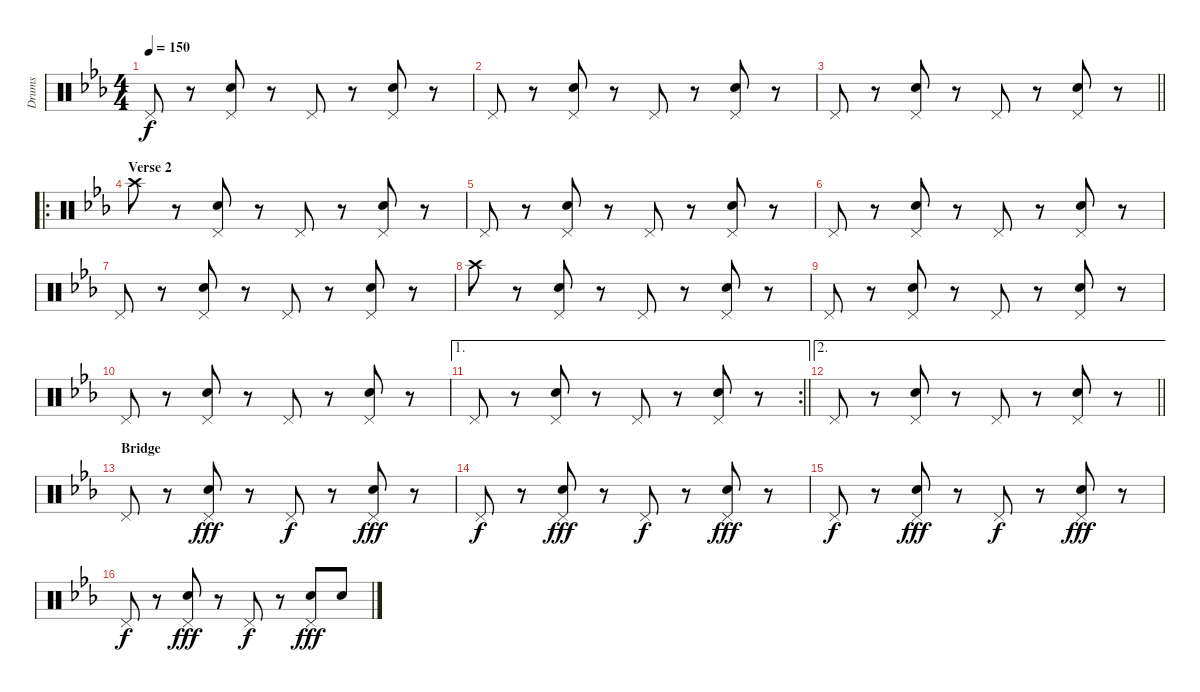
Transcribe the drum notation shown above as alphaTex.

\track ("Drums" "Drums") {instrument percussion}
\staff {score}
\articulation defaults
\ts (4 4)
\tempo 150
\clef neutral
\ks cminor "Pedal Hi-Hat (hit)".8{dy f}
r.8 ("Pedal Hi-Hat (hit)" "Electric Snare (hit)").8 r.8 "Pedal Hi-Hat (hit)".8 r.8 ("Pedal Hi-Hat (hit)" "Electric Snare (hit)").8 r.8 |
"Pedal Hi-Hat (hit)".8 r.8 ("Pedal Hi-Hat (hit)" "Electric Snare (hit)").8 r.8 "Pedal Hi-Hat (hit)".8 r.8 ("Pedal Hi-Hat (hit)" "Electric Snare (hit)").8 r.8 |
\barLineRight lightlight "Pedal Hi-Hat (hit)".8
r.8 ("Pedal Hi-Hat (hit)" "Electric Snare (hit)").8 r.8 "Pedal Hi-Hat (hit)".8 r.8 ("Pedal Hi-Hat (hit)" "Electric Snare (hit)").8 r.8 |
\ro
\section ("" "Verse 2")
"Crash high (hit)".8 r.8 ("Pedal Hi-Hat (hit)" "Electric Snare (hit)").8 r.8 "Pedal Hi-Hat (hit)".8 r.8 ("Pedal Hi-Hat (hit)" "Electric Snare (hit)").8 r.8 |
"Pedal Hi-Hat (hit)".8 r.8 ("Pedal Hi-Hat (hit)" "Electric Snare (hit)").8 r.8 "Pedal Hi-Hat (hit)".8 r.8 ("Pedal Hi-Hat (hit)" "Electric Snare (hit)").8 r.8 |
"Pedal Hi-Hat (hit)".8 r.8 ("Pedal Hi-Hat (hit)" "Electric Snare (hit)").8 r.8 "Pedal Hi-Hat (hit)".8 r.8 ("Pedal Hi-Hat (hit)" "Electric Snare (hit)").8 r.8 |
"Pedal Hi-Hat (hit)".8 r.8 ("Pedal Hi-Hat (hit)" "Electric Snare (hit)").8 r.8 "Pedal Hi-Hat (hit)".8 r.8 ("Pedal Hi-Hat (hit)" "Electric Snare (hit)").8 r.8 |
"Crash high (hit)".8 r.8 ("Pedal Hi-Hat (hit)" "Electric Snare (hit)").8 r.8 "Pedal Hi-Hat (hit)".8 r.8 ("Pedal Hi-Hat (hit)" "Electric Snare (hit)").8 r.8 |
"Pedal Hi-Hat (hit)".8 r.8 ("Pedal Hi-Hat (hit)" "Electric Snare (hit)").8 r.8 "Pedal Hi-Hat (hit)".8 r.8 ("Pedal Hi-Hat (hit)" "Electric Snare (hit)").8 r.8 |
"Pedal Hi-Hat (hit)".8 r.8 ("Pedal Hi-Hat (hit)" "Electric Snare (hit)").8 r.8 "Pedal Hi-Hat (hit)".8 r.8 ("Pedal Hi-Hat (hit)" "Electric Snare (hit)").8 r.8 |
\ae 1
\rc 2
\barLineRight lightlight "Pedal Hi-Hat (hit)".8
r.8 ("Pedal Hi-Hat (hit)" "Electric Snare (hit)").8 r.8 "Pedal Hi-Hat (hit)".8 r.8 ("Pedal Hi-Hat (hit)" "Electric Snare (hit)").8 r.8 |
\ae 2
\barLineRight lightlight "Pedal Hi-Hat (hit)".8
r.8 ("Pedal Hi-Hat (hit)" "Electric Snare (hit)").8 r.8 "Pedal Hi-Hat (hit)".8 r.8 ("Pedal Hi-Hat (hit)" "Electric Snare (hit)").8 r.8 |
\section ("" "Bridge")
"Pedal Hi-Hat (hit)".8 r.8 ("Pedal Hi-Hat (hit)" "Electric Snare (hit)").8{dy fff} r.8 "Pedal Hi-Hat (hit)".8{dy f} r.8 ("Pedal Hi-Hat (hit)" "Electric Snare (hit)").8{dy fff} r.8 |
"Pedal Hi-Hat (hit)".8{dy f} r.8 ("Pedal Hi-Hat (hit)" "Electric Snare (hit)").8{dy fff} r.8 "Pedal Hi-Hat (hit)".8{dy f} r.8 ("Pedal Hi-Hat (hit)" "Electric Snare (hit)").8{dy fff} r.8 |
"Pedal Hi-Hat (hit)".8{dy f} r.8 ("Pedal Hi-Hat (hit)" "Electric Snare (hit)").8{dy fff} r.8 "Pedal Hi-Hat (hit)".8{dy f} r.8 ("Pedal Hi-Hat (hit)" "Electric Snare (hit)").8{dy fff} r.8 |
"Pedal Hi-Hat (hit)".8{dy f} r.8 ("Pedal Hi-Hat (hit)" "Electric Snare (hit)").8{dy fff} r.8 "Pedal Hi-Hat (hit)".8{dy f} r.8 ("Pedal Hi-Hat (hit)" "Electric Snare (hit)").8{dy fff} "Electric Snare (hit)".8
